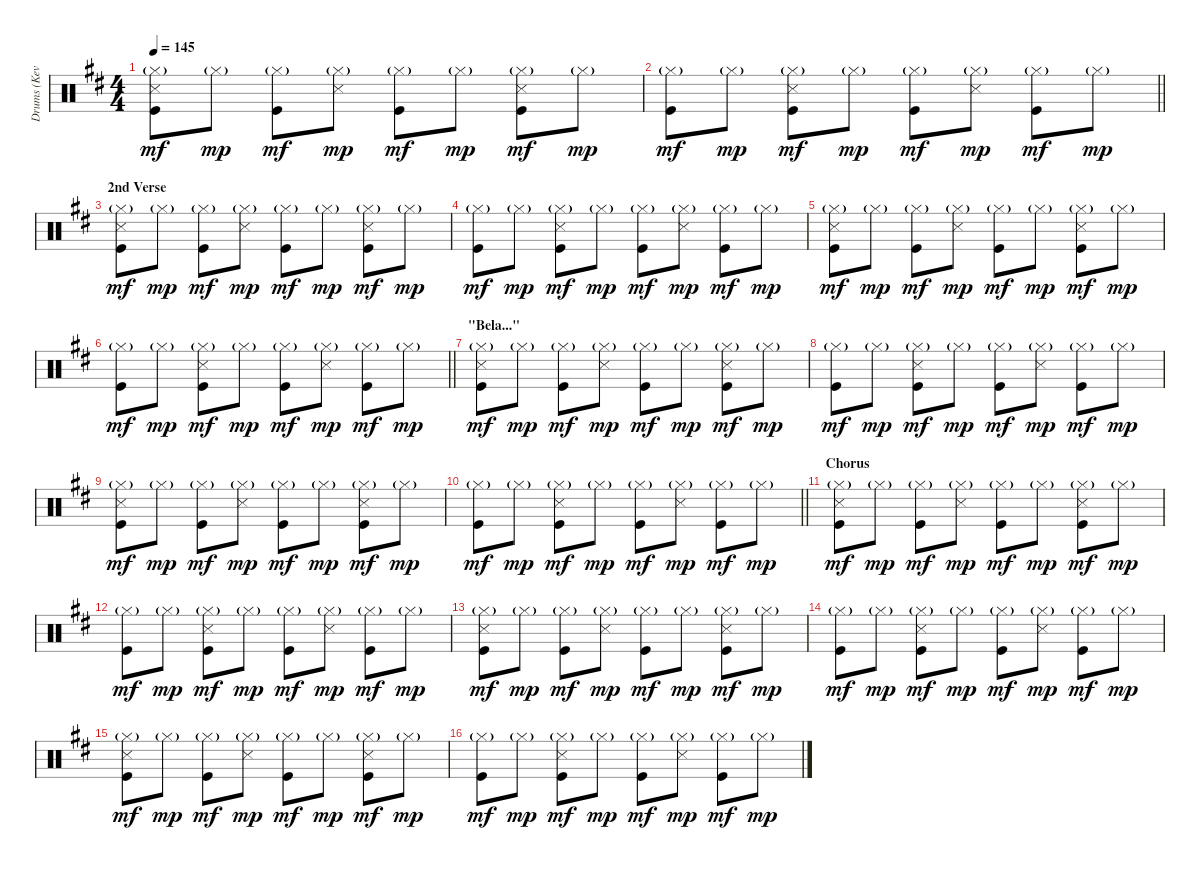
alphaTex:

\track ("Drums (Kevin Haskins)" "Drums (Kev") {instrument percussion}
\staff {score}
\articulation defaults
\ts (4 4)
\tempo 145
\clef neutral
\ks d
("Hi-Hat (closed)"{g} "Snare (side stick) 3" "Kick (hit)").8{dy mf} "Hi-Hat (closed)"{g}.8{dy mp} ("Hi-Hat (closed)"{g} "Kick (hit)").8{dy mf} ("Hi-Hat (closed)"{g} "Snare (side stick) 3").8{dy mp} ("Hi-Hat (closed)"{g} "Kick (hit)").8{dy mf} "Hi-Hat (closed)"{g}.8{dy mp} ("Hi-Hat (closed)"{g} "Snare (side stick) 3" "Kick (hit)").8{dy mf} "Hi-Hat (closed)"{g}.8{dy mp} |
\barLineRight lightlight
("Hi-Hat (closed)"{g} "Kick (hit)").8{dy mf} "Hi-Hat (closed)"{g}.8{dy mp} ("Hi-Hat (closed)"{g} "Snare (side stick) 3" "Kick (hit)").8{dy mf} "Hi-Hat (closed)"{g}.8{dy mp} ("Hi-Hat (closed)"{g} "Kick (hit)").8{dy mf} ("Hi-Hat (closed)"{g} "Snare (side stick) 3").8{dy mp} ("Hi-Hat (closed)"{g} "Kick (hit)").8{dy mf} "Hi-Hat (closed)"{g}.8{dy mp} |
\section ("" "2nd Verse")
("Hi-Hat (closed)"{g} "Snare (side stick) 3" "Kick (hit)").8{dy mf} "Hi-Hat (closed)"{g}.8{dy mp} ("Hi-Hat (closed)"{g} "Kick (hit)").8{dy mf} ("Hi-Hat (closed)"{g} "Snare (side stick) 3").8{dy mp} ("Hi-Hat (closed)"{g} "Kick (hit)").8{dy mf} "Hi-Hat (closed)"{g}.8{dy mp} ("Hi-Hat (closed)"{g} "Snare (side stick) 3" "Kick (hit)").8{dy mf} "Hi-Hat (closed)"{g}.8{dy mp} |
("Hi-Hat (closed)"{g} "Kick (hit)").8{dy mf} "Hi-Hat (closed)"{g}.8{dy mp} ("Hi-Hat (closed)"{g} "Snare (side stick) 3" "Kick (hit)").8{dy mf} "Hi-Hat (closed)"{g}.8{dy mp} ("Hi-Hat (closed)"{g} "Kick (hit)").8{dy mf} ("Hi-Hat (closed)"{g} "Snare (side stick) 3").8{dy mp} ("Hi-Hat (closed)"{g} "Kick (hit)").8{dy mf} "Hi-Hat (closed)"{g}.8{dy mp} |
("Hi-Hat (closed)"{g} "Snare (side stick) 3" "Kick (hit)").8{dy mf} "Hi-Hat (closed)"{g}.8{dy mp} ("Hi-Hat (closed)"{g} "Kick (hit)").8{dy mf} ("Hi-Hat (closed)"{g} "Snare (side stick) 3").8{dy mp} ("Hi-Hat (closed)"{g} "Kick (hit)").8{dy mf} "Hi-Hat (closed)"{g}.8{dy mp} ("Hi-Hat (closed)"{g} "Snare (side stick) 3" "Kick (hit)").8{dy mf} "Hi-Hat (closed)"{g}.8{dy mp} |
\barLineRight lightlight
("Hi-Hat (closed)"{g} "Kick (hit)").8{dy mf} "Hi-Hat (closed)"{g}.8{dy mp} ("Hi-Hat (closed)"{g} "Snare (side stick) 3" "Kick (hit)").8{dy mf} "Hi-Hat (closed)"{g}.8{dy mp} ("Hi-Hat (closed)"{g} "Kick (hit)").8{dy mf} ("Hi-Hat (closed)"{g} "Snare (side stick) 3").8{dy mp} ("Hi-Hat (closed)"{g} "Kick (hit)").8{dy mf} "Hi-Hat (closed)"{g}.8{dy mp} |
\section ("" "\"Bela...\"")
("Hi-Hat (closed)"{g} "Snare (side stick) 3" "Kick (hit)").8{dy mf} "Hi-Hat (closed)"{g}.8{dy mp} ("Hi-Hat (closed)"{g} "Kick (hit)").8{dy mf} ("Hi-Hat (closed)"{g} "Snare (side stick) 3").8{dy mp} ("Hi-Hat (closed)"{g} "Kick (hit)").8{dy mf} "Hi-Hat (closed)"{g}.8{dy mp} ("Hi-Hat (closed)"{g} "Snare (side stick) 3" "Kick (hit)").8{dy mf} "Hi-Hat (closed)"{g}.8{dy mp} |
("Hi-Hat (closed)"{g} "Kick (hit)").8{dy mf} "Hi-Hat (closed)"{g}.8{dy mp} ("Hi-Hat (closed)"{g} "Snare (side stick) 3" "Kick (hit)").8{dy mf} "Hi-Hat (closed)"{g}.8{dy mp} ("Hi-Hat (closed)"{g} "Kick (hit)").8{dy mf} ("Hi-Hat (closed)"{g} "Snare (side stick) 3").8{dy mp} ("Hi-Hat (closed)"{g} "Kick (hit)").8{dy mf} "Hi-Hat (closed)"{g}.8{dy mp} |
("Hi-Hat (closed)"{g} "Snare (side stick) 3" "Kick (hit)").8{dy mf} "Hi-Hat (closed)"{g}.8{dy mp} ("Hi-Hat (closed)"{g} "Kick (hit)").8{dy mf} ("Hi-Hat (closed)"{g} "Snare (side stick) 3").8{dy mp} ("Hi-Hat (closed)"{g} "Kick (hit)").8{dy mf} "Hi-Hat (closed)"{g}.8{dy mp} ("Hi-Hat (closed)"{g} "Snare (side stick) 3" "Kick (hit)").8{dy mf} "Hi-Hat (closed)"{g}.8{dy mp} |
\barLineRight lightlight
("Hi-Hat (closed)"{g} "Kick (hit)").8{dy mf} "Hi-Hat (closed)"{g}.8{dy mp} ("Hi-Hat (closed)"{g} "Snare (side stick) 3" "Kick (hit)").8{dy mf} "Hi-Hat (closed)"{g}.8{dy mp} ("Hi-Hat (closed)"{g} "Kick (hit)").8{dy mf} ("Hi-Hat (closed)"{g} "Snare (side stick) 3").8{dy mp} ("Hi-Hat (closed)"{g} "Kick (hit)").8{dy mf} "Hi-Hat (closed)"{g}.8{dy mp} |
\section ("" "Chorus")
("Hi-Hat (closed)"{g} "Snare (side stick) 3" "Kick (hit)").8{dy mf} "Hi-Hat (closed)"{g}.8{dy mp} ("Hi-Hat (closed)"{g} "Kick (hit)").8{dy mf} ("Hi-Hat (closed)"{g} "Snare (side stick) 3").8{dy mp} ("Hi-Hat (closed)"{g} "Kick (hit)").8{dy mf} "Hi-Hat (closed)"{g}.8{dy mp} ("Hi-Hat (closed)"{g} "Snare (side stick) 3" "Kick (hit)").8{dy mf} "Hi-Hat (closed)"{g}.8{dy mp} |
("Hi-Hat (closed)"{g} "Kick (hit)").8{dy mf} "Hi-Hat (closed)"{g}.8{dy mp} ("Hi-Hat (closed)"{g} "Snare (side stick) 3" "Kick (hit)").8{dy mf} "Hi-Hat (closed)"{g}.8{dy mp} ("Hi-Hat (closed)"{g} "Kick (hit)").8{dy mf} ("Hi-Hat (closed)"{g} "Snare (side stick) 3").8{dy mp} ("Hi-Hat (closed)"{g} "Kick (hit)").8{dy mf} "Hi-Hat (closed)"{g}.8{dy mp} |
("Hi-Hat (closed)"{g} "Snare (side stick) 3" "Kick (hit)").8{dy mf} "Hi-Hat (closed)"{g}.8{dy mp} ("Hi-Hat (closed)"{g} "Kick (hit)").8{dy mf} ("Hi-Hat (closed)"{g} "Snare (side stick) 3").8{dy mp} ("Hi-Hat (closed)"{g} "Kick (hit)").8{dy mf} "Hi-Hat (closed)"{g}.8{dy mp} ("Hi-Hat (closed)"{g} "Snare (side stick) 3" "Kick (hit)").8{dy mf} "Hi-Hat (closed)"{g}.8{dy mp} |
("Hi-Hat (closed)"{g} "Kick (hit)").8{dy mf} "Hi-Hat (closed)"{g}.8{dy mp} ("Hi-Hat (closed)"{g} "Snare (side stick) 3" "Kick (hit)").8{dy mf} "Hi-Hat (closed)"{g}.8{dy mp} ("Hi-Hat (closed)"{g} "Kick (hit)").8{dy mf} ("Hi-Hat (closed)"{g} "Snare (side stick) 3").8{dy mp} ("Hi-Hat (closed)"{g} "Kick (hit)").8{dy mf} "Hi-Hat (closed)"{g}.8{dy mp} |
("Hi-Hat (closed)"{g} "Snare (side stick) 3" "Kick (hit)").8{dy mf} "Hi-Hat (closed)"{g}.8{dy mp} ("Hi-Hat (closed)"{g} "Kick (hit)").8{dy mf} ("Hi-Hat (closed)"{g} "Snare (side stick) 3").8{dy mp} ("Hi-Hat (closed)"{g} "Kick (hit)").8{dy mf} "Hi-Hat (closed)"{g}.8{dy mp} ("Hi-Hat (closed)"{g} "Snare (side stick) 3" "Kick (hit)").8{dy mf} "Hi-Hat (closed)"{g}.8{dy mp} |
("Hi-Hat (closed)"{g} "Kick (hit)").8{dy mf} "Hi-Hat (closed)"{g}.8{dy mp} ("Hi-Hat (closed)"{g} "Snare (side stick) 3" "Kick (hit)").8{dy mf} "Hi-Hat (closed)"{g}.8{dy mp} ("Hi-Hat (closed)"{g} "Kick (hit)").8{dy mf} ("Hi-Hat (closed)"{g} "Snare (side stick) 3").8{dy mp} ("Hi-Hat (closed)"{g} "Kick (hit)").8{dy mf} "Hi-Hat (closed)"{g}.8{dy mp}
